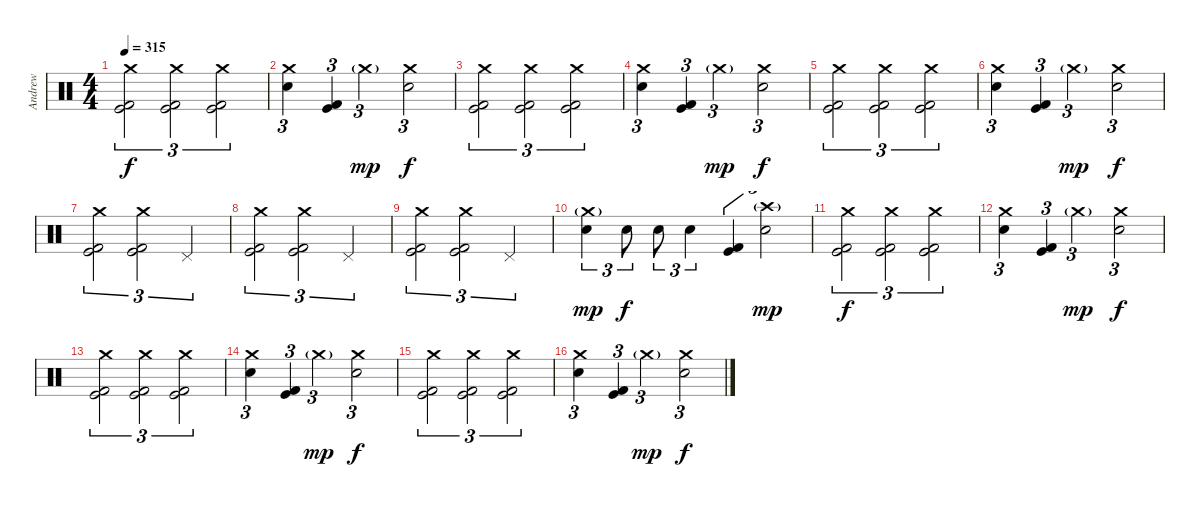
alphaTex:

\track ("Andrew" "Andrew") {instrument percussion}
\staff {score}
\articulation defaults
\ts (4 4)
\tempo 315
\clef neutral
\ks c
("Crash medium (hit)" "Kick (hit)" "Kick (hit) 2").2{tu (3 2) dy f} ("Crash medium (hit)" "Kick (hit)" "Kick (hit) 2").2{tu (3 2)} ("Crash medium (hit)" "Kick (hit)" "Kick (hit) 2").2{tu (3 2)} |
("Crash medium (hit)" "Snare (hit) 2").4{tu (3 2)} ("Kick (hit)" "Kick (hit) 2").4{tu (3 2)} "Crash medium (hit)"{g}.2{tu (3 2) dy mp} ("Crash medium (hit)" "Snare (hit) 2").2{tu (3 2) dy f} |
("Crash medium (hit)" "Kick (hit)" "Kick (hit) 2").2{tu (3 2)} ("Crash medium (hit)" "Kick (hit)" "Kick (hit) 2").2{tu (3 2)} ("Crash medium (hit)" "Kick (hit)" "Kick (hit) 2").2{tu (3 2)} |
("Crash medium (hit)" "Snare (hit) 2").4{tu (3 2)} ("Kick (hit)" "Kick (hit) 2").4{tu (3 2)} "Crash medium (hit)"{g}.2{tu (3 2) dy mp} ("Crash medium (hit)" "Snare (hit) 2").2{tu (3 2) dy f} |
("Crash medium (hit)" "Kick (hit)" "Kick (hit) 2").2{tu (3 2)} ("Crash medium (hit)" "Kick (hit)" "Kick (hit) 2").2{tu (3 2)} ("Crash medium (hit)" "Kick (hit)" "Kick (hit) 2").2{tu (3 2)} |
("Crash medium (hit)" "Snare (hit) 2").4{tu (3 2)} ("Kick (hit)" "Kick (hit) 2").4{tu (3 2)} "Crash medium (hit)"{g}.2{tu (3 2) dy mp} ("Crash medium (hit)" "Snare (hit) 2").2{tu (3 2) dy f} |
("Crash medium (hit)" "Kick (hit)" "Kick (hit) 2").2{tu (3 2)} ("Crash medium (hit)" "Kick (hit)" "Kick (hit) 2").2{tu (3 2)} "Pedal Hi-Hat (hit)".2{tu (3 2)} |
("Crash medium (hit)" "Kick (hit)" "Kick (hit) 2").2{tu (3 2)} ("Crash medium (hit)" "Kick (hit)" "Kick (hit) 2").2{tu (3 2)} "Pedal Hi-Hat (hit)".2{tu (3 2)} |
("Crash medium (hit)" "Kick (hit)" "Kick (hit) 2").2{tu (3 2)} ("Crash medium (hit)" "Kick (hit)" "Kick (hit) 2").2{tu (3 2)} "Pedal Hi-Hat (hit)".2{tu (3 2)} |
("Crash medium (hit)"{g} "Snare (hit) 2").4{tu (3 2) dy mp} "Snare (hit) 2".8{tu (3 2) dy f} "Snare (hit) 2".8{tu (3 2)} "Snare (hit) 2".4{tu (3 2)} ("Kick (hit)" "Kick (hit) 2").4{tu (3 2)} ("Crash high (hit)"{g} "Snare (hit) 2").2{tu (3 2) dy mp} |
("Crash medium (hit)" "Kick (hit)" "Kick (hit) 2").2{tu (3 2) dy f} ("Crash medium (hit)" "Kick (hit)" "Kick (hit) 2").2{tu (3 2)} ("Crash medium (hit)" "Kick (hit)" "Kick (hit) 2").2{tu (3 2)} |
("Crash medium (hit)" "Snare (hit) 2").4{tu (3 2)} ("Kick (hit)" "Kick (hit) 2").4{tu (3 2)} "Crash medium (hit)"{g}.2{tu (3 2) dy mp} ("Crash medium (hit)" "Snare (hit) 2").2{tu (3 2) dy f} |
("Crash medium (hit)" "Kick (hit)" "Kick (hit) 2").2{tu (3 2)} ("Crash medium (hit)" "Kick (hit)" "Kick (hit) 2").2{tu (3 2)} ("Crash medium (hit)" "Kick (hit)" "Kick (hit) 2").2{tu (3 2)} |
("Crash medium (hit)" "Snare (hit) 2").4{tu (3 2)} ("Kick (hit)" "Kick (hit) 2").4{tu (3 2)} "Crash medium (hit)"{g}.2{tu (3 2) dy mp} ("Crash medium (hit)" "Snare (hit) 2").2{tu (3 2) dy f} |
("Crash medium (hit)" "Kick (hit)" "Kick (hit) 2").2{tu (3 2)} ("Crash medium (hit)" "Kick (hit)" "Kick (hit) 2").2{tu (3 2)} ("Crash medium (hit)" "Kick (hit)" "Kick (hit) 2").2{tu (3 2)} |
("Crash medium (hit)" "Snare (hit) 2").4{tu (3 2)} ("Kick (hit)" "Kick (hit) 2").4{tu (3 2)} "Crash medium (hit)"{g}.2{tu (3 2) dy mp} ("Crash medium (hit)" "Snare (hit) 2").2{tu (3 2) dy f}
